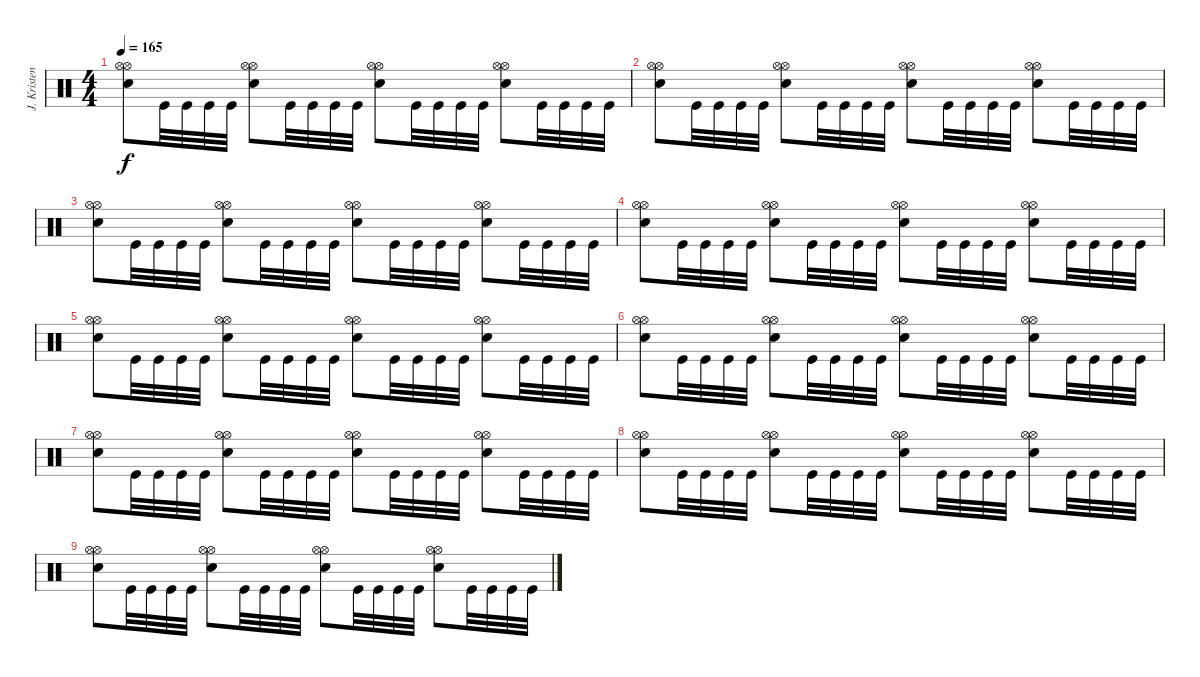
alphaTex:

\track ("J. Kristensson" "J. Kristen") {instrument percussion}
\staff {score}
\articulation defaults
\ts (4 4)
\tempo 165
\clef neutral
\ks c
("Hi-Hat (open)" "Hi-Hat (open)" "Snare (hit) 2").8{dy f} "Kick (hit)".32 "Kick (hit)".32 "Kick (hit)".32 "Kick (hit)".32 ("Hi-Hat (open)" "Hi-Hat (open)" "Snare (hit) 2").8 "Kick (hit)".32 "Kick (hit)".32 "Kick (hit)".32 "Kick (hit)".32 ("Hi-Hat (open)" "Hi-Hat (open)" "Snare (hit) 2").8 "Kick (hit)".32 "Kick (hit)".32 "Kick (hit)".32 "Kick (hit)".32 ("Hi-Hat (open)" "Hi-Hat (open)" "Snare (hit) 2").8 "Kick (hit)".32 "Kick (hit)".32 "Kick (hit)".32 "Kick (hit)".32 |
("Hi-Hat (open)" "Hi-Hat (open)" "Snare (hit) 2").8 "Kick (hit)".32 "Kick (hit)".32 "Kick (hit)".32 "Kick (hit)".32 ("Hi-Hat (open)" "Hi-Hat (open)" "Snare (hit) 2").8 "Kick (hit)".32 "Kick (hit)".32 "Kick (hit)".32 "Kick (hit)".32 ("Hi-Hat (open)" "Hi-Hat (open)" "Snare (hit) 2").8 "Kick (hit)".32 "Kick (hit)".32 "Kick (hit)".32 "Kick (hit)".32 ("Hi-Hat (open)" "Hi-Hat (open)" "Snare (hit) 2").8 "Kick (hit)".32 "Kick (hit)".32 "Kick (hit)".32 "Kick (hit)".32 |
("Hi-Hat (open)" "Hi-Hat (open)" "Snare (hit) 2").8 "Kick (hit)".32 "Kick (hit)".32 "Kick (hit)".32 "Kick (hit)".32 ("Hi-Hat (open)" "Hi-Hat (open)" "Snare (hit) 2").8 "Kick (hit)".32 "Kick (hit)".32 "Kick (hit)".32 "Kick (hit)".32 ("Hi-Hat (open)" "Hi-Hat (open)" "Snare (hit) 2").8 "Kick (hit)".32 "Kick (hit)".32 "Kick (hit)".32 "Kick (hit)".32 ("Hi-Hat (open)" "Hi-Hat (open)" "Snare (hit) 2").8 "Kick (hit)".32 "Kick (hit)".32 "Kick (hit)".32 "Kick (hit)".32 |
("Hi-Hat (open)" "Hi-Hat (open)" "Snare (hit) 2").8 "Kick (hit)".32 "Kick (hit)".32 "Kick (hit)".32 "Kick (hit)".32 ("Hi-Hat (open)" "Hi-Hat (open)" "Snare (hit) 2").8 "Kick (hit)".32 "Kick (hit)".32 "Kick (hit)".32 "Kick (hit)".32 ("Hi-Hat (open)" "Hi-Hat (open)" "Snare (hit) 2").8 "Kick (hit)".32 "Kick (hit)".32 "Kick (hit)".32 "Kick (hit)".32 ("Hi-Hat (open)" "Hi-Hat (open)" "Snare (hit) 2").8 "Kick (hit)".32 "Kick (hit)".32 "Kick (hit)".32 "Kick (hit)".32 |
("Hi-Hat (open)" "Hi-Hat (open)" "Snare (hit) 2").8 "Kick (hit)".32 "Kick (hit)".32 "Kick (hit)".32 "Kick (hit)".32 ("Hi-Hat (open)" "Hi-Hat (open)" "Snare (hit) 2").8 "Kick (hit)".32 "Kick (hit)".32 "Kick (hit)".32 "Kick (hit)".32 ("Hi-Hat (open)" "Hi-Hat (open)" "Snare (hit) 2").8 "Kick (hit)".32 "Kick (hit)".32 "Kick (hit)".32 "Kick (hit)".32 ("Hi-Hat (open)" "Hi-Hat (open)" "Snare (hit) 2").8 "Kick (hit)".32 "Kick (hit)".32 "Kick (hit)".32 "Kick (hit)".32 |
("Hi-Hat (open)" "Hi-Hat (open)" "Snare (hit) 2").8 "Kick (hit)".32 "Kick (hit)".32 "Kick (hit)".32 "Kick (hit)".32 ("Hi-Hat (open)" "Hi-Hat (open)" "Snare (hit) 2").8 "Kick (hit)".32 "Kick (hit)".32 "Kick (hit)".32 "Kick (hit)".32 ("Hi-Hat (open)" "Hi-Hat (open)" "Snare (hit) 2").8 "Kick (hit)".32 "Kick (hit)".32 "Kick (hit)".32 "Kick (hit)".32 ("Hi-Hat (open)" "Hi-Hat (open)" "Snare (hit) 2").8 "Kick (hit)".32 "Kick (hit)".32 "Kick (hit)".32 "Kick (hit)".32 |
("Hi-Hat (open)" "Hi-Hat (open)" "Snare (hit) 2").8 "Kick (hit)".32 "Kick (hit)".32 "Kick (hit)".32 "Kick (hit)".32 ("Hi-Hat (open)" "Hi-Hat (open)" "Snare (hit) 2").8 "Kick (hit)".32 "Kick (hit)".32 "Kick (hit)".32 "Kick (hit)".32 ("Hi-Hat (open)" "Hi-Hat (open)" "Snare (hit) 2").8 "Kick (hit)".32 "Kick (hit)".32 "Kick (hit)".32 "Kick (hit)".32 ("Hi-Hat (open)" "Hi-Hat (open)" "Snare (hit) 2").8 "Kick (hit)".32 "Kick (hit)".32 "Kick (hit)".32 "Kick (hit)".32 |
("Hi-Hat (open)" "Hi-Hat (open)" "Snare (hit) 2").8 "Kick (hit)".32 "Kick (hit)".32 "Kick (hit)".32 "Kick (hit)".32 ("Hi-Hat (open)" "Hi-Hat (open)" "Snare (hit) 2").8 "Kick (hit)".32 "Kick (hit)".32 "Kick (hit)".32 "Kick (hit)".32 ("Hi-Hat (open)" "Hi-Hat (open)" "Snare (hit) 2").8 "Kick (hit)".32 "Kick (hit)".32 "Kick (hit)".32 "Kick (hit)".32 ("Hi-Hat (open)" "Hi-Hat (open)" "Snare (hit) 2").8 "Kick (hit)".32 "Kick (hit)".32 "Kick (hit)".32 "Kick (hit)".32 |
("Hi-Hat (open)" "Hi-Hat (open)" "Snare (hit) 2").8 "Kick (hit)".32 "Kick (hit)".32 "Kick (hit)".32 "Kick (hit)".32 ("Hi-Hat (open)" "Hi-Hat (open)" "Snare (hit) 2").8 "Kick (hit)".32 "Kick (hit)".32 "Kick (hit)".32 "Kick (hit)".32 ("Hi-Hat (open)" "Hi-Hat (open)" "Snare (hit) 2").8 "Kick (hit)".32 "Kick (hit)".32 "Kick (hit)".32 "Kick (hit)".32 ("Hi-Hat (open)" "Hi-Hat (open)" "Snare (hit) 2").8 "Kick (hit)".32 "Kick (hit)".32 "Kick (hit)".32 "Kick (hit)".32
